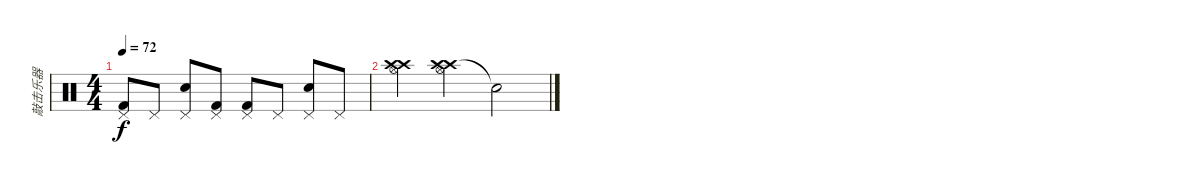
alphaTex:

\track ("敲击乐器" "敲击乐器") {instrument percussion}
\staff {score}
\articulation defaults
\ts (4 4)
\tempo 72
\clef neutral
\ks c
("Pedal Hi-Hat (hit)" "Kick (hit) 2").8{dy f} "Pedal Hi-Hat (hit)".8 ("Pedal Hi-Hat (hit)" "Snare (hit) 2").8 ("Pedal Hi-Hat (hit)" "Kick (hit) 2").8 ("Pedal Hi-Hat (hit)" "Kick (hit) 2").8 "Pedal Hi-Hat (hit)".8 ("Pedal Hi-Hat (hit)" "Snare (hit) 2").8 "Pedal Hi-Hat (hit)".8 |
("Crash high (hit)" "Crash high (hit)" "Hi-Hat (open)").4 ("Crash high (hit)" "Crash high (hit)" "Hi-Hat (open)").4 "Snare (hit)"{t}.2
